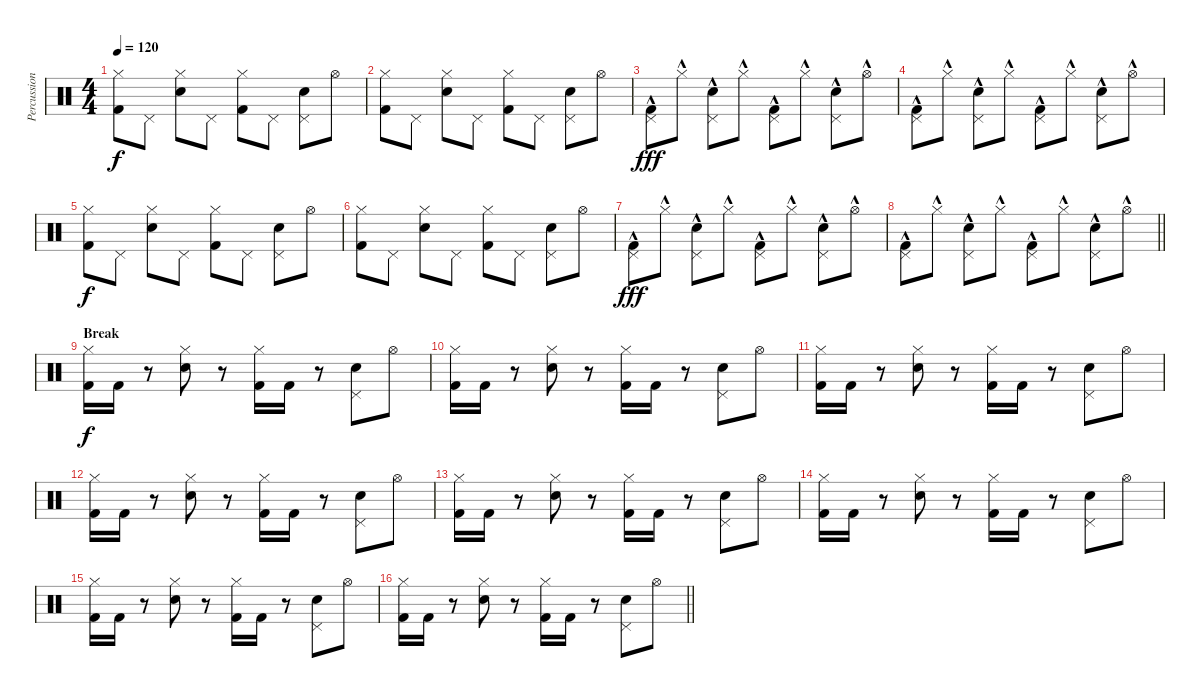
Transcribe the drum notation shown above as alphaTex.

\track ("Percussion" "Percussion") {instrument percussion}
\staff {score}
\articulation defaults
\ts (4 4)
\tempo 120
\clef neutral
\ks c
("Hi-Hat (closed)" "Kick (hit) 2").8{dy f} "Pedal Hi-Hat (hit)".8 ("Hi-Hat (closed)" "Electric Snare (hit)").8 "Pedal Hi-Hat (hit)".8 ("Hi-Hat (closed)" "Kick (hit) 2").8 "Pedal Hi-Hat (hit)".8 ("Pedal Hi-Hat (hit)" "Electric Snare (hit)").8 "Hi-Hat (open)".8 |
("Hi-Hat (closed)" "Kick (hit) 2").8 "Pedal Hi-Hat (hit)".8 ("Hi-Hat (closed)" "Electric Snare (hit)").8 "Pedal Hi-Hat (hit)".8 ("Hi-Hat (closed)" "Kick (hit) 2").8 "Pedal Hi-Hat (hit)".8 ("Pedal Hi-Hat (hit)" "Electric Snare (hit)").8 "Hi-Hat (open)".8 |
("Pedal Hi-Hat (hit)" "Kick (hit) 2"{hac}).8{dy fff} "Hi-Hat (closed)"{hac}.8 ("Pedal Hi-Hat (hit)" "Electric Snare (hit)"{hac}).8 "Hi-Hat (closed)"{hac}.8 ("Pedal Hi-Hat (hit)" "Kick (hit) 2"{hac}).8 "Hi-Hat (closed)"{hac}.8 ("Pedal Hi-Hat (hit)" "Electric Snare (hit)"{hac}).8 "Hi-Hat (open)"{hac}.8 |
("Pedal Hi-Hat (hit)" "Kick (hit) 2"{hac}).8 "Hi-Hat (closed)"{hac}.8 ("Pedal Hi-Hat (hit)" "Electric Snare (hit)"{hac}).8 "Hi-Hat (closed)"{hac}.8 ("Pedal Hi-Hat (hit)" "Kick (hit) 2"{hac}).8 "Hi-Hat (closed)"{hac}.8 ("Pedal Hi-Hat (hit)" "Electric Snare (hit)"{hac}).8 "Hi-Hat (open)"{hac}.8 |
("Hi-Hat (closed)" "Kick (hit) 2").8{dy f} "Pedal Hi-Hat (hit)".8 ("Hi-Hat (closed)" "Electric Snare (hit)").8 "Pedal Hi-Hat (hit)".8 ("Hi-Hat (closed)" "Kick (hit) 2").8 "Pedal Hi-Hat (hit)".8 ("Pedal Hi-Hat (hit)" "Electric Snare (hit)").8 "Hi-Hat (open)".8 |
("Hi-Hat (closed)" "Kick (hit) 2").8 "Pedal Hi-Hat (hit)".8 ("Hi-Hat (closed)" "Electric Snare (hit)").8 "Pedal Hi-Hat (hit)".8 ("Hi-Hat (closed)" "Kick (hit) 2").8 "Pedal Hi-Hat (hit)".8 ("Pedal Hi-Hat (hit)" "Electric Snare (hit)").8 "Hi-Hat (open)".8 |
("Pedal Hi-Hat (hit)" "Kick (hit) 2"{hac}).8{dy fff} "Hi-Hat (closed)"{hac}.8 ("Pedal Hi-Hat (hit)" "Electric Snare (hit)"{hac}).8 "Hi-Hat (closed)"{hac}.8 ("Pedal Hi-Hat (hit)" "Kick (hit) 2"{hac}).8 "Hi-Hat (closed)"{hac}.8 ("Pedal Hi-Hat (hit)" "Electric Snare (hit)"{hac}).8 "Hi-Hat (open)"{hac}.8 |
\barLineRight lightlight
("Pedal Hi-Hat (hit)" "Kick (hit) 2"{hac}).8 "Hi-Hat (closed)"{hac}.8 ("Pedal Hi-Hat (hit)" "Electric Snare (hit)"{hac}).8 "Hi-Hat (closed)"{hac}.8 ("Pedal Hi-Hat (hit)" "Kick (hit) 2"{hac}).8 "Hi-Hat (closed)"{hac}.8 ("Pedal Hi-Hat (hit)" "Electric Snare (hit)"{hac}).8 "Hi-Hat (open)"{hac}.8 |
\section ("" "Break")
("Hi-Hat (closed)" "Kick (hit) 2").16{dy f} "Kick (hit) 2".16 r.8 ("Hi-Hat (closed)" "Electric Snare (hit)").8 r.8 ("Hi-Hat (closed)" "Kick (hit) 2").16 "Kick (hit) 2".16 r.8 ("Pedal Hi-Hat (hit)" "Electric Snare (hit)").8 "Hi-Hat (open)".8 |
("Hi-Hat (closed)" "Kick (hit) 2").16 "Kick (hit) 2".16 r.8 ("Hi-Hat (closed)" "Electric Snare (hit)").8 r.8 ("Hi-Hat (closed)" "Kick (hit) 2").16 "Kick (hit) 2".16 r.8 ("Pedal Hi-Hat (hit)" "Electric Snare (hit)").8 "Hi-Hat (open)".8 |
("Hi-Hat (closed)" "Kick (hit) 2").16 "Kick (hit) 2".16 r.8 ("Hi-Hat (closed)" "Electric Snare (hit)").8 r.8 ("Hi-Hat (closed)" "Kick (hit) 2").16 "Kick (hit) 2".16 r.8 ("Pedal Hi-Hat (hit)" "Electric Snare (hit)").8 "Hi-Hat (open)".8 |
("Hi-Hat (closed)" "Kick (hit) 2").16 "Kick (hit) 2".16 r.8 ("Hi-Hat (closed)" "Electric Snare (hit)").8 r.8 ("Hi-Hat (closed)" "Kick (hit) 2").16 "Kick (hit) 2".16 r.8 ("Pedal Hi-Hat (hit)" "Electric Snare (hit)").8 "Hi-Hat (open)".8 |
("Hi-Hat (closed)" "Kick (hit) 2").16 "Kick (hit) 2".16 r.8 ("Hi-Hat (closed)" "Electric Snare (hit)").8 r.8 ("Hi-Hat (closed)" "Kick (hit) 2").16 "Kick (hit) 2".16 r.8 ("Pedal Hi-Hat (hit)" "Electric Snare (hit)").8 "Hi-Hat (open)".8 |
("Hi-Hat (closed)" "Kick (hit) 2").16 "Kick (hit) 2".16 r.8 ("Hi-Hat (closed)" "Electric Snare (hit)").8 r.8 ("Hi-Hat (closed)" "Kick (hit) 2").16 "Kick (hit) 2".16 r.8 ("Pedal Hi-Hat (hit)" "Electric Snare (hit)").8 "Hi-Hat (open)".8 |
("Hi-Hat (closed)" "Kick (hit) 2").16 "Kick (hit) 2".16 r.8 ("Hi-Hat (closed)" "Electric Snare (hit)").8 r.8 ("Hi-Hat (closed)" "Kick (hit) 2").16 "Kick (hit) 2".16 r.8 ("Pedal Hi-Hat (hit)" "Electric Snare (hit)").8 "Hi-Hat (open)".8 |
\barLineRight lightlight
("Hi-Hat (closed)" "Kick (hit) 2").16 "Kick (hit) 2".16 r.8 ("Hi-Hat (closed)" "Electric Snare (hit)").8 r.8 ("Hi-Hat (closed)" "Kick (hit) 2").16 "Kick (hit) 2".16 r.8 ("Pedal Hi-Hat (hit)" "Electric Snare (hit)").8 "Hi-Hat (open)".8
